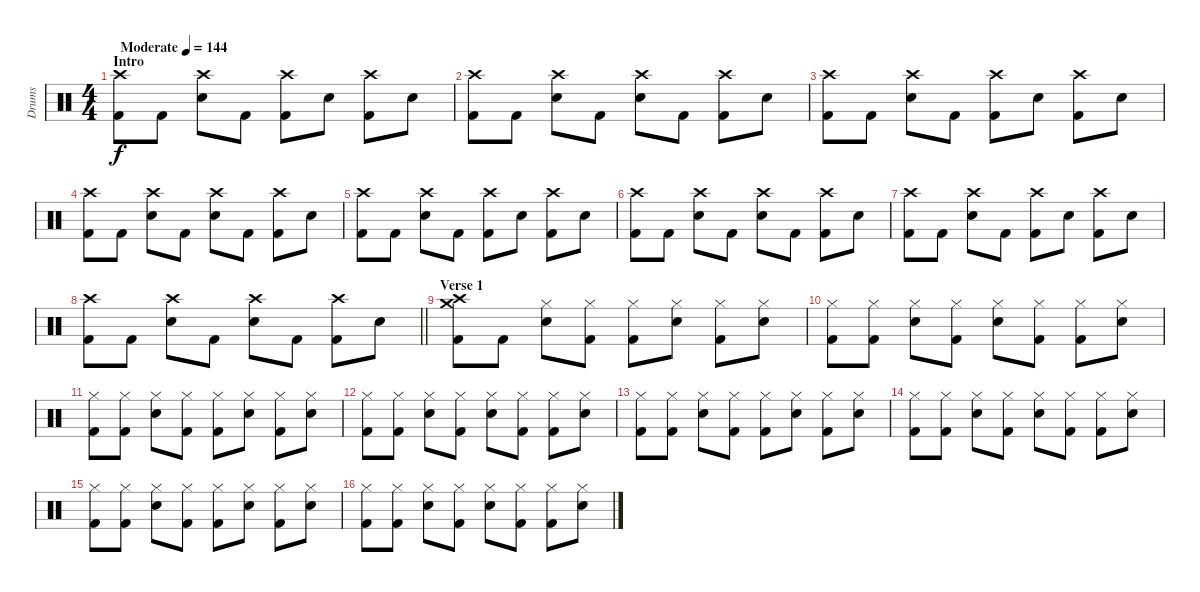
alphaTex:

\track ("Drums" "Drums") {instrument percussion}
\staff {score}
\articulation defaults
\ts (4 4)
\section ("" "Intro")
\tempo (144 "Moderate")
\clef neutral
\ks c
("Crash high (hit)" "Kick (hit) 2").8{dy f} "Kick (hit) 2".8 ("Crash high (hit)" "Electric Snare (hit)").8 "Kick (hit) 2".8 ("Crash high (hit)" "Kick (hit) 2").8 "Electric Snare (hit)".8 ("Crash high (hit)" "Kick (hit) 2").8 "Electric Snare (hit)".8 |
("Crash high (hit)" "Kick (hit) 2").8 "Kick (hit) 2".8 ("Crash high (hit)" "Electric Snare (hit)").8 "Kick (hit) 2".8 ("Crash high (hit)" "Electric Snare (hit)").8 "Kick (hit) 2".8 ("Crash high (hit)" "Kick (hit) 2").8 "Electric Snare (hit)".8 |
("Crash high (hit)" "Kick (hit) 2").8 "Kick (hit) 2".8 ("Crash high (hit)" "Electric Snare (hit)").8 "Kick (hit) 2".8 ("Crash high (hit)" "Kick (hit) 2").8 "Electric Snare (hit)".8 ("Crash high (hit)" "Kick (hit) 2").8 "Electric Snare (hit)".8 |
("Crash high (hit)" "Kick (hit) 2").8 "Kick (hit) 2".8 ("Crash high (hit)" "Electric Snare (hit)").8 "Kick (hit) 2".8 ("Crash high (hit)" "Electric Snare (hit)").8 "Kick (hit) 2".8 ("Crash high (hit)" "Kick (hit) 2").8 "Electric Snare (hit)".8 |
("Crash high (hit)" "Kick (hit) 2").8 "Kick (hit) 2".8 ("Crash high (hit)" "Electric Snare (hit)").8 "Kick (hit) 2".8 ("Crash high (hit)" "Kick (hit) 2").8 "Electric Snare (hit)".8 ("Crash high (hit)" "Kick (hit) 2").8 "Electric Snare (hit)".8 |
("Crash high (hit)" "Kick (hit) 2").8 "Kick (hit) 2".8 ("Crash high (hit)" "Electric Snare (hit)").8 "Kick (hit) 2".8 ("Crash high (hit)" "Electric Snare (hit)").8 "Kick (hit) 2".8 ("Crash high (hit)" "Kick (hit) 2").8 "Electric Snare (hit)".8 |
("Crash high (hit)" "Kick (hit) 2").8 "Kick (hit) 2".8 ("Crash high (hit)" "Electric Snare (hit)").8 "Kick (hit) 2".8 ("Crash high (hit)" "Kick (hit) 2").8 "Electric Snare (hit)".8 ("Crash high (hit)" "Kick (hit) 2").8 "Electric Snare (hit)".8 |
\barLineRight lightlight
("Crash high (hit)" "Kick (hit) 2").8 "Kick (hit) 2".8 ("Crash high (hit)" "Electric Snare (hit)").8 "Kick (hit) 2".8 ("Crash high (hit)" "Electric Snare (hit)").8 "Kick (hit) 2".8 ("Crash high (hit)" "Kick (hit) 2").8 "Electric Snare (hit)".8 |
\section ("" "Verse 1")
("Crash medium (hit)" "Crash high (hit)" "Kick (hit) 2").8 "Kick (hit) 2".8 ("Hi-Hat (closed)" "Electric Snare (hit)").8 ("Hi-Hat (closed)" "Kick (hit) 2").8 ("Hi-Hat (closed)" "Kick (hit) 2").8 ("Hi-Hat (closed)" "Electric Snare (hit)").8 ("Hi-Hat (closed)" "Kick (hit) 2").8 ("Hi-Hat (closed)" "Electric Snare (hit)").8 |
("Hi-Hat (closed)" "Kick (hit) 2").8 ("Hi-Hat (closed)" "Kick (hit) 2").8 ("Hi-Hat (closed)" "Electric Snare (hit)").8 ("Hi-Hat (closed)" "Kick (hit) 2").8 ("Hi-Hat (closed)" "Electric Snare (hit)").8 ("Hi-Hat (closed)" "Kick (hit) 2").8 ("Hi-Hat (closed)" "Kick (hit) 2").8 ("Hi-Hat (closed)" "Electric Snare (hit)").8 |
("Hi-Hat (closed)" "Kick (hit) 2").8 ("Hi-Hat (closed)" "Kick (hit) 2").8 ("Hi-Hat (closed)" "Electric Snare (hit)").8 ("Hi-Hat (closed)" "Kick (hit) 2").8 ("Hi-Hat (closed)" "Kick (hit) 2").8 ("Hi-Hat (closed)" "Electric Snare (hit)").8 ("Hi-Hat (closed)" "Kick (hit) 2").8 ("Hi-Hat (closed)" "Electric Snare (hit)").8 |
("Hi-Hat (closed)" "Kick (hit) 2").8 ("Hi-Hat (closed)" "Kick (hit) 2").8 ("Hi-Hat (closed)" "Electric Snare (hit)").8 ("Hi-Hat (closed)" "Kick (hit) 2").8 ("Hi-Hat (closed)" "Electric Snare (hit)").8 ("Hi-Hat (closed)" "Kick (hit) 2").8 ("Hi-Hat (closed)" "Kick (hit) 2").8 ("Hi-Hat (closed)" "Electric Snare (hit)").8 |
("Hi-Hat (closed)" "Kick (hit) 2").8 ("Hi-Hat (closed)" "Kick (hit) 2").8 ("Hi-Hat (closed)" "Electric Snare (hit)").8 ("Hi-Hat (closed)" "Kick (hit) 2").8 ("Hi-Hat (closed)" "Kick (hit) 2").8 ("Hi-Hat (closed)" "Electric Snare (hit)").8 ("Hi-Hat (closed)" "Kick (hit) 2").8 ("Hi-Hat (closed)" "Electric Snare (hit)").8 |
("Hi-Hat (closed)" "Kick (hit) 2").8 ("Hi-Hat (closed)" "Kick (hit) 2").8 ("Hi-Hat (closed)" "Electric Snare (hit)").8 ("Hi-Hat (closed)" "Kick (hit) 2").8 ("Hi-Hat (closed)" "Electric Snare (hit)").8 ("Hi-Hat (closed)" "Kick (hit) 2").8 ("Hi-Hat (closed)" "Kick (hit) 2").8 ("Hi-Hat (closed)" "Electric Snare (hit)").8 |
("Hi-Hat (closed)" "Kick (hit) 2").8 ("Hi-Hat (closed)" "Kick (hit) 2").8 ("Hi-Hat (closed)" "Electric Snare (hit)").8 ("Hi-Hat (closed)" "Kick (hit) 2").8 ("Hi-Hat (closed)" "Kick (hit) 2").8 ("Hi-Hat (closed)" "Electric Snare (hit)").8 ("Hi-Hat (closed)" "Kick (hit) 2").8 ("Hi-Hat (closed)" "Electric Snare (hit)").8 |
("Hi-Hat (closed)" "Kick (hit) 2").8 ("Hi-Hat (closed)" "Kick (hit) 2").8 ("Hi-Hat (closed)" "Electric Snare (hit)").8 ("Hi-Hat (closed)" "Kick (hit) 2").8 ("Hi-Hat (closed)" "Electric Snare (hit)").8 ("Hi-Hat (closed)" "Kick (hit) 2").8 ("Hi-Hat (closed)" "Kick (hit) 2").8 ("Hi-Hat (closed)" "Electric Snare (hit)").8
